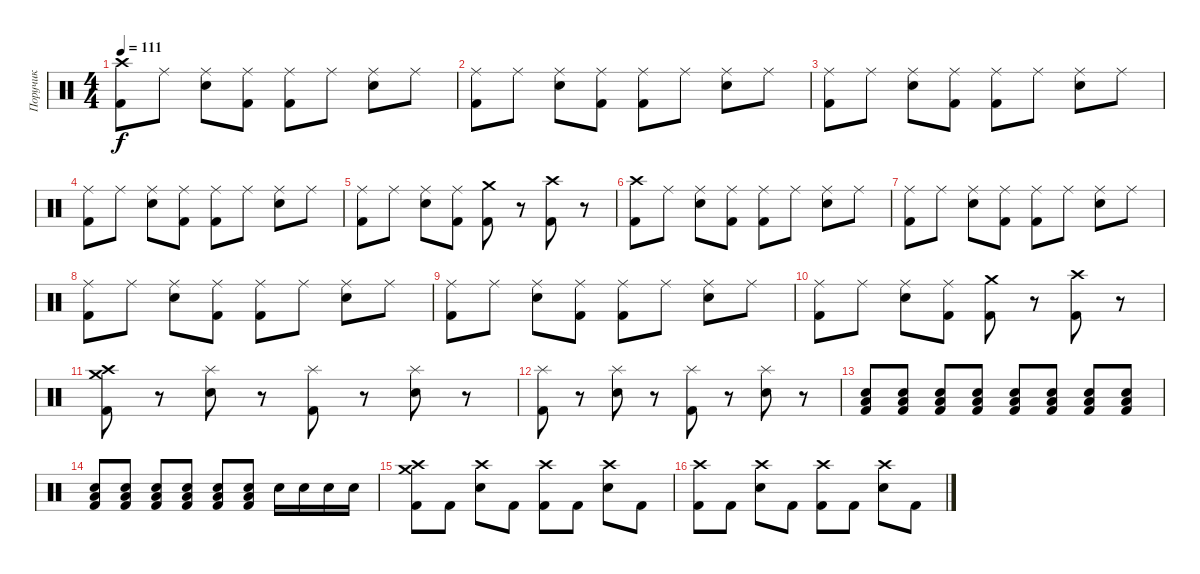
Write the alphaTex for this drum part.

\track ("Поручик" "Поручик") {instrument percussion}
\staff {score}
\articulation defaults
\ts (4 4)
\tempo 111
\clef neutral
\ks c
("Crash high (hit)" "Kick (hit) 2").8{dy f} "Ride (middle)".8 ("Ride (middle)" "Electric Snare (hit)").8 ("Ride (middle)" "Kick (hit) 2").8 ("Ride (middle)" "Kick (hit) 2").8 "Ride (middle)".8 ("Ride (middle)" "Electric Snare (hit)").8 "Ride (middle)".8 |
("Ride (middle)" "Kick (hit) 2").8 "Ride (middle)".8 ("Ride (middle)" "Electric Snare (hit)").8 ("Ride (middle)" "Kick (hit) 2").8 ("Ride (middle)" "Kick (hit) 2").8 "Ride (middle)".8 ("Ride (middle)" "Electric Snare (hit)").8 "Ride (middle)".8 |
("Ride (middle)" "Kick (hit) 2").8 "Ride (middle)".8 ("Ride (middle)" "Electric Snare (hit)").8 ("Ride (middle)" "Kick (hit) 2").8 ("Ride (middle)" "Kick (hit) 2").8 "Ride (middle)".8 ("Ride (middle)" "Electric Snare (hit)").8 "Ride (middle)".8 |
("Ride (middle)" "Kick (hit) 2").8 "Ride (middle)".8 ("Ride (middle)" "Electric Snare (hit)").8 ("Ride (middle)" "Kick (hit) 2").8 ("Ride (middle)" "Kick (hit) 2").8 "Ride (middle)".8 ("Ride (middle)" "Electric Snare (hit)").8 "Ride (middle)".8 |
("Ride (middle)" "Kick (hit) 2").8 "Ride (middle)".8 ("Ride (middle)" "Electric Snare (hit)").8 ("Ride (middle)" "Kick (hit) 2").8 ("Crash medium (hit)" "Kick (hit) 2").8 r.8 ("Crash high (hit)" "Kick (hit) 2").8 r.8 |
("Crash high (hit)" "Kick (hit) 2").8 "Ride (middle)".8 ("Ride (middle)" "Electric Snare (hit)").8 ("Ride (middle)" "Kick (hit) 2").8 ("Ride (middle)" "Kick (hit) 2").8 "Ride (middle)".8 ("Ride (middle)" "Electric Snare (hit)").8 "Ride (middle)".8 |
("Ride (middle)" "Kick (hit) 2").8 "Ride (middle)".8 ("Ride (middle)" "Electric Snare (hit)").8 ("Ride (middle)" "Kick (hit) 2").8 ("Ride (middle)" "Kick (hit) 2").8 "Ride (middle)".8 ("Ride (middle)" "Electric Snare (hit)").8 "Ride (middle)".8 |
("Ride (middle)" "Kick (hit) 2").8 "Ride (middle)".8 ("Ride (middle)" "Electric Snare (hit)").8 ("Ride (middle)" "Kick (hit) 2").8 ("Ride (middle)" "Kick (hit) 2").8 "Ride (middle)".8 ("Ride (middle)" "Electric Snare (hit)").8 "Ride (middle)".8 |
("Ride (middle)" "Kick (hit) 2").8 "Ride (middle)".8 ("Ride (middle)" "Electric Snare (hit)").8 ("Ride (middle)" "Kick (hit) 2").8 ("Ride (middle)" "Kick (hit) 2").8 "Ride (middle)".8 ("Ride (middle)" "Electric Snare (hit)").8 "Ride (middle)".8 |
("Ride (middle)" "Kick (hit) 2").8 "Ride (middle)".8 ("Ride (middle)" "Electric Snare (hit)").8 ("Ride (middle)" "Kick (hit) 2").8 ("Crash medium (hit)" "Kick (hit) 2").8 r.8 ("Crash high (hit)" "Kick (hit) 2").8 r.8 |
("Crash medium (hit)" "Crash high (hit)" "Kick (hit) 2").8 r.8 ("Splash (hit)" "Electric Snare (hit)").8 r.8 ("Splash (hit)" "Kick (hit) 2").8 r.8 ("Splash (hit)" "Electric Snare (hit)").8 r.8 |
("Splash (hit)" "Kick (hit) 2").8 r.8 ("Splash (hit)" "Electric Snare (hit)").8 r.8 ("Splash (hit)" "Kick (hit) 2").8 r.8 ("Splash (hit)" "Electric Snare (hit)").8 r.8 |
("Low Tom (hit)" "Electric Snare (hit)" "Kick (hit) 2").8 ("Low Tom (hit)" "Electric Snare (hit)" "Kick (hit) 2").8 ("Low Tom (hit)" "Electric Snare (hit)" "Kick (hit) 2").8 ("Low Tom (hit)" "Electric Snare (hit)" "Kick (hit) 2").8 ("Low Tom (hit)" "Electric Snare (hit)" "Kick (hit) 2").8 ("Low Tom (hit)" "Electric Snare (hit)" "Kick (hit) 2").8 ("Low Tom (hit)" "Electric Snare (hit)" "Kick (hit) 2").8 ("Low Tom (hit)" "Electric Snare (hit)" "Kick (hit) 2").8 |
("Low Tom (hit)" "Electric Snare (hit)" "Kick (hit) 2").8 ("Low Tom (hit)" "Electric Snare (hit)" "Kick (hit) 2").8 ("Low Tom (hit)" "Electric Snare (hit)" "Kick (hit) 2").8 ("Low Tom (hit)" "Electric Snare (hit)" "Kick (hit) 2").8 ("Low Tom (hit)" "Electric Snare (hit)" "Kick (hit) 2").8 ("Low Tom (hit)" "Electric Snare (hit)" "Kick (hit) 2").8 "Electric Snare (hit)".16 "Electric Snare (hit)".16 "Electric Snare (hit)".16 "Electric Snare (hit)".16 |
("Crash medium (hit)" "Crash high (hit)" "Kick (hit) 2").8 "Kick (hit) 2".8 ("Crash high (hit)" "Electric Snare (hit)").8 "Kick (hit) 2".8 ("Crash high (hit)" "Kick (hit) 2").8 "Kick (hit) 2".8 ("Crash high (hit)" "Electric Snare (hit)").8 "Kick (hit) 2".8 |
("Crash high (hit)" "Kick (hit) 2").8 "Kick (hit) 2".8 ("Crash high (hit)" "Electric Snare (hit)").8 "Kick (hit) 2".8 ("Crash high (hit)" "Kick (hit) 2").8 "Kick (hit) 2".8 ("Crash high (hit)" "Electric Snare (hit)").8 "Kick (hit) 2".8
